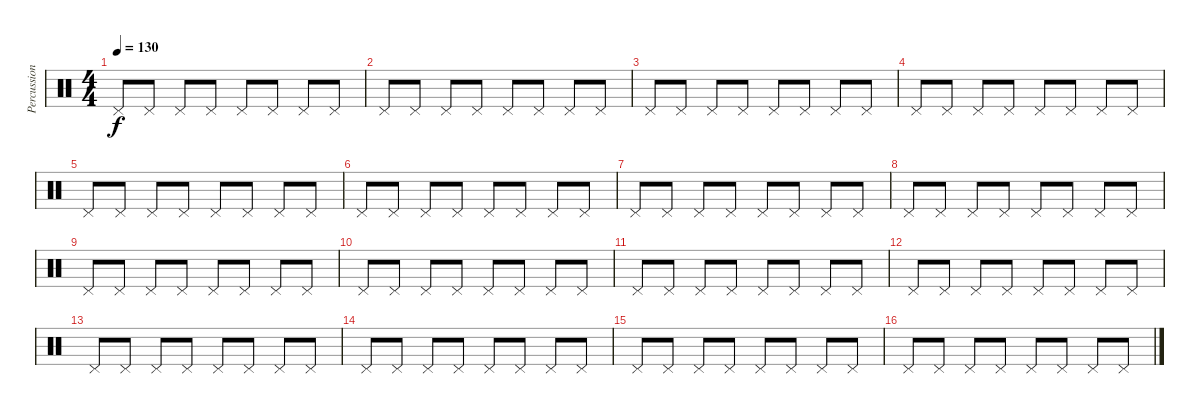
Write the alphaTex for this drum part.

\track ("Percussion" "Percussion") {instrument percussion}
\staff {score}
\articulation defaults
\ts (4 4)
\tempo 130
\clef neutral
\ks c "Pedal Hi-Hat (hit)".8{dy f} "Pedal Hi-Hat (hit)".8 "Pedal Hi-Hat (hit)".8 "Pedal Hi-Hat (hit)".8 "Pedal Hi-Hat (hit)".8 "Pedal Hi-Hat (hit)".8 "Pedal Hi-Hat (hit)".8 "Pedal Hi-Hat (hit)".8
|
"Pedal Hi-Hat (hit)".8 "Pedal Hi-Hat (hit)".8 "Pedal Hi-Hat (hit)".8 "Pedal Hi-Hat (hit)".8 "Pedal Hi-Hat (hit)".8 "Pedal Hi-Hat (hit)".8 "Pedal Hi-Hat (hit)".8 "Pedal Hi-Hat (hit)".8 |
"Pedal Hi-Hat (hit)".8 "Pedal Hi-Hat (hit)".8 "Pedal Hi-Hat (hit)".8 "Pedal Hi-Hat (hit)".8 "Pedal Hi-Hat (hit)".8 "Pedal Hi-Hat (hit)".8 "Pedal Hi-Hat (hit)".8 "Pedal Hi-Hat (hit)".8 |
"Pedal Hi-Hat (hit)".8 "Pedal Hi-Hat (hit)".8 "Pedal Hi-Hat (hit)".8 "Pedal Hi-Hat (hit)".8 "Pedal Hi-Hat (hit)".8 "Pedal Hi-Hat (hit)".8 "Pedal Hi-Hat (hit)".8 "Pedal Hi-Hat (hit)".8 |
"Pedal Hi-Hat (hit)".8 "Pedal Hi-Hat (hit)".8 "Pedal Hi-Hat (hit)".8 "Pedal Hi-Hat (hit)".8 "Pedal Hi-Hat (hit)".8 "Pedal Hi-Hat (hit)".8 "Pedal Hi-Hat (hit)".8 "Pedal Hi-Hat (hit)".8 |
"Pedal Hi-Hat (hit)".8 "Pedal Hi-Hat (hit)".8 "Pedal Hi-Hat (hit)".8 "Pedal Hi-Hat (hit)".8 "Pedal Hi-Hat (hit)".8 "Pedal Hi-Hat (hit)".8 "Pedal Hi-Hat (hit)".8 "Pedal Hi-Hat (hit)".8 |
"Pedal Hi-Hat (hit)".8 "Pedal Hi-Hat (hit)".8 "Pedal Hi-Hat (hit)".8 "Pedal Hi-Hat (hit)".8 "Pedal Hi-Hat (hit)".8 "Pedal Hi-Hat (hit)".8 "Pedal Hi-Hat (hit)".8 "Pedal Hi-Hat (hit)".8 |
"Pedal Hi-Hat (hit)".8 "Pedal Hi-Hat (hit)".8 "Pedal Hi-Hat (hit)".8 "Pedal Hi-Hat (hit)".8 "Pedal Hi-Hat (hit)".8 "Pedal Hi-Hat (hit)".8 "Pedal Hi-Hat (hit)".8 "Pedal Hi-Hat (hit)".8 |
"Pedal Hi-Hat (hit)".8 "Pedal Hi-Hat (hit)".8 "Pedal Hi-Hat (hit)".8 "Pedal Hi-Hat (hit)".8 "Pedal Hi-Hat (hit)".8 "Pedal Hi-Hat (hit)".8 "Pedal Hi-Hat (hit)".8 "Pedal Hi-Hat (hit)".8 |
"Pedal Hi-Hat (hit)".8 "Pedal Hi-Hat (hit)".8 "Pedal Hi-Hat (hit)".8 "Pedal Hi-Hat (hit)".8 "Pedal Hi-Hat (hit)".8 "Pedal Hi-Hat (hit)".8 "Pedal Hi-Hat (hit)".8 "Pedal Hi-Hat (hit)".8 |
"Pedal Hi-Hat (hit)".8 "Pedal Hi-Hat (hit)".8 "Pedal Hi-Hat (hit)".8 "Pedal Hi-Hat (hit)".8 "Pedal Hi-Hat (hit)".8 "Pedal Hi-Hat (hit)".8 "Pedal Hi-Hat (hit)".8 "Pedal Hi-Hat (hit)".8 |
"Pedal Hi-Hat (hit)".8 "Pedal Hi-Hat (hit)".8 "Pedal Hi-Hat (hit)".8 "Pedal Hi-Hat (hit)".8 "Pedal Hi-Hat (hit)".8 "Pedal Hi-Hat (hit)".8 "Pedal Hi-Hat (hit)".8 "Pedal Hi-Hat (hit)".8 |
"Pedal Hi-Hat (hit)".8 "Pedal Hi-Hat (hit)".8 "Pedal Hi-Hat (hit)".8 "Pedal Hi-Hat (hit)".8 "Pedal Hi-Hat (hit)".8 "Pedal Hi-Hat (hit)".8 "Pedal Hi-Hat (hit)".8 "Pedal Hi-Hat (hit)".8 |
"Pedal Hi-Hat (hit)".8 "Pedal Hi-Hat (hit)".8 "Pedal Hi-Hat (hit)".8 "Pedal Hi-Hat (hit)".8 "Pedal Hi-Hat (hit)".8 "Pedal Hi-Hat (hit)".8 "Pedal Hi-Hat (hit)".8 "Pedal Hi-Hat (hit)".8 |
"Pedal Hi-Hat (hit)".8 "Pedal Hi-Hat (hit)".8 "Pedal Hi-Hat (hit)".8 "Pedal Hi-Hat (hit)".8 "Pedal Hi-Hat (hit)".8 "Pedal Hi-Hat (hit)".8 "Pedal Hi-Hat (hit)".8 "Pedal Hi-Hat (hit)".8 |
"Pedal Hi-Hat (hit)".8 "Pedal Hi-Hat (hit)".8 "Pedal Hi-Hat (hit)".8 "Pedal Hi-Hat (hit)".8 "Pedal Hi-Hat (hit)".8 "Pedal Hi-Hat (hit)".8 "Pedal Hi-Hat (hit)".8 "Pedal Hi-Hat (hit)".8
